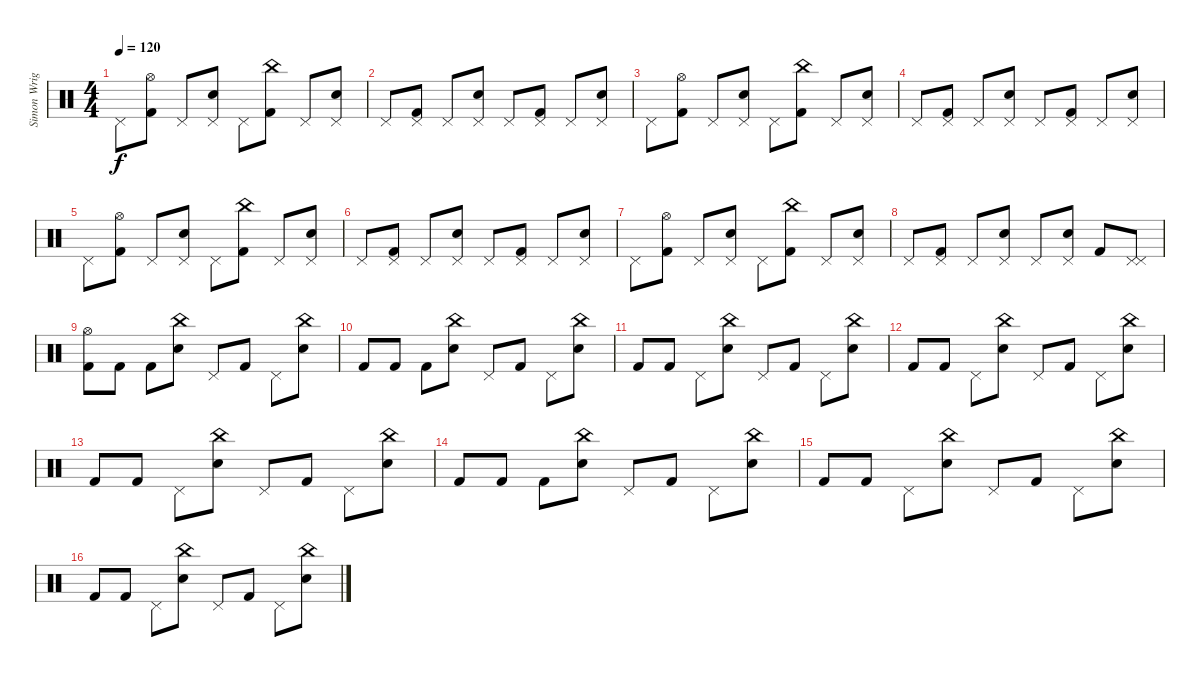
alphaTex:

\track ("Simon Wright (i think)" "Simon Wrig") {instrument percussion}
\staff {score}
\articulation defaults
\ts (4 4)
\tempo 120
\clef neutral
\ks c "Pedal Hi-Hat (hit)".8{dy f}
("Kick (hit) 2" "Hi-Hat (open)").8 "Pedal Hi-Hat (hit)".8 ("Snare (hit) 2" "Pedal Hi-Hat (hit)").8 "Pedal Hi-Hat (hit)".8 ("Kick (hit) 2" "China (hit)").8 "Pedal Hi-Hat (hit)".8 ("Snare (hit) 2" "Pedal Hi-Hat (hit)").8 |
"Pedal Hi-Hat (hit)".8 ("Kick (hit) 2" "Pedal Hi-Hat (hit)").8 "Pedal Hi-Hat (hit)".8 ("Snare (hit) 2" "Pedal Hi-Hat (hit)").8 "Pedal Hi-Hat (hit)".8 ("Kick (hit) 2" "Pedal Hi-Hat (hit)").8 "Pedal Hi-Hat (hit)".8 ("Snare (hit) 2" "Pedal Hi-Hat (hit)").8 |
"Pedal Hi-Hat (hit)".8 ("Kick (hit) 2" "Hi-Hat (open)").8 "Pedal Hi-Hat (hit)".8 ("Snare (hit) 2" "Pedal Hi-Hat (hit)").8 "Pedal Hi-Hat (hit)".8 ("Kick (hit) 2" "China (hit)").8 "Pedal Hi-Hat (hit)".8 ("Snare (hit) 2" "Pedal Hi-Hat (hit)").8 |
"Pedal Hi-Hat (hit)".8 ("Kick (hit) 2" "Pedal Hi-Hat (hit)").8 "Pedal Hi-Hat (hit)".8 ("Snare (hit) 2" "Pedal Hi-Hat (hit)").8 "Pedal Hi-Hat (hit)".8 ("Kick (hit) 2" "Pedal Hi-Hat (hit)").8 "Pedal Hi-Hat (hit)".8 ("Snare (hit) 2" "Pedal Hi-Hat (hit)").8 |
"Pedal Hi-Hat (hit)".8 ("Kick (hit) 2" "Hi-Hat (open)").8 "Pedal Hi-Hat (hit)".8 ("Snare (hit) 2" "Pedal Hi-Hat (hit)").8 "Pedal Hi-Hat (hit)".8 ("Kick (hit) 2" "China (hit)").8 "Pedal Hi-Hat (hit)".8 ("Snare (hit) 2" "Pedal Hi-Hat (hit)").8 |
"Pedal Hi-Hat (hit)".8 ("Kick (hit) 2" "Pedal Hi-Hat (hit)").8 "Pedal Hi-Hat (hit)".8 ("Snare (hit) 2" "Pedal Hi-Hat (hit)").8 "Pedal Hi-Hat (hit)".8 ("Kick (hit) 2" "Pedal Hi-Hat (hit)").8 "Pedal Hi-Hat (hit)".8 ("Snare (hit) 2" "Pedal Hi-Hat (hit)").8 |
"Pedal Hi-Hat (hit)".8 ("Kick (hit) 2" "Hi-Hat (open)").8 "Pedal Hi-Hat (hit)".8 ("Snare (hit) 2" "Pedal Hi-Hat (hit)").8 "Pedal Hi-Hat (hit)".8 ("Kick (hit) 2" "China (hit)").8 "Pedal Hi-Hat (hit)".8 ("Snare (hit) 2" "Pedal Hi-Hat (hit)").8 |
"Pedal Hi-Hat (hit)".8 ("Kick (hit) 2" "Pedal Hi-Hat (hit)").8 "Pedal Hi-Hat (hit)".8 ("Snare (hit) 2" "Pedal Hi-Hat (hit)").8 "Pedal Hi-Hat (hit)".8 ("Snare (hit) 2" "Pedal Hi-Hat (hit)").8 "Kick (hit) 2".8 ("Pedal Hi-Hat (hit)" "Pedal Hi-Hat (hit)").8 |
("Kick (hit) 2" "Hi-Hat (open)").8 "Kick (hit) 2".8 "Kick (hit) 2".8 ("Snare (hit) 2" "China (hit)").8 "Pedal Hi-Hat (hit)".8 "Kick (hit) 2".8 "Pedal Hi-Hat (hit)".8 ("Snare (hit) 2" "China (hit)").8 |
"Kick (hit) 2".8 "Kick (hit) 2".8 "Kick (hit) 2".8 ("Snare (hit) 2" "China (hit)").8 "Pedal Hi-Hat (hit)".8 "Kick (hit) 2".8 "Pedal Hi-Hat (hit)".8 ("Snare (hit) 2" "China (hit)").8 |
"Kick (hit) 2".8 "Kick (hit) 2".8 "Pedal Hi-Hat (hit)".8 ("Snare (hit) 2" "China (hit)").8 "Pedal Hi-Hat (hit)".8 "Kick (hit) 2".8 "Pedal Hi-Hat (hit)".8 ("Snare (hit) 2" "China (hit)").8 |
"Kick (hit) 2".8 "Kick (hit) 2".8 "Pedal Hi-Hat (hit)".8 ("Snare (hit) 2" "China (hit)").8 "Pedal Hi-Hat (hit)".8 "Kick (hit) 2".8 "Pedal Hi-Hat (hit)".8 ("Snare (hit) 2" "China (hit)").8 |
"Kick (hit) 2".8 "Kick (hit) 2".8 "Pedal Hi-Hat (hit)".8 ("Snare (hit) 2" "China (hit)").8 "Pedal Hi-Hat (hit)".8 "Kick (hit) 2".8 "Pedal Hi-Hat (hit)".8 ("Snare (hit) 2" "China (hit)").8 |
"Kick (hit) 2".8 "Kick (hit) 2".8 "Kick (hit) 2".8 ("Snare (hit) 2" "China (hit)").8 "Pedal Hi-Hat (hit)".8 "Kick (hit) 2".8 "Pedal Hi-Hat (hit)".8 ("Snare (hit) 2" "China (hit)").8 |
"Kick (hit) 2".8 "Kick (hit) 2".8 "Pedal Hi-Hat (hit)".8 ("Snare (hit) 2" "China (hit)").8 "Pedal Hi-Hat (hit)".8 "Kick (hit) 2".8 "Pedal Hi-Hat (hit)".8 ("Snare (hit) 2" "China (hit)").8 |
"Kick (hit) 2".8 "Kick (hit) 2".8 "Pedal Hi-Hat (hit)".8 ("Snare (hit) 2" "China (hit)").8 "Pedal Hi-Hat (hit)".8 "Kick (hit) 2".8 "Pedal Hi-Hat (hit)".8 ("Snare (hit) 2" "China (hit)").8
